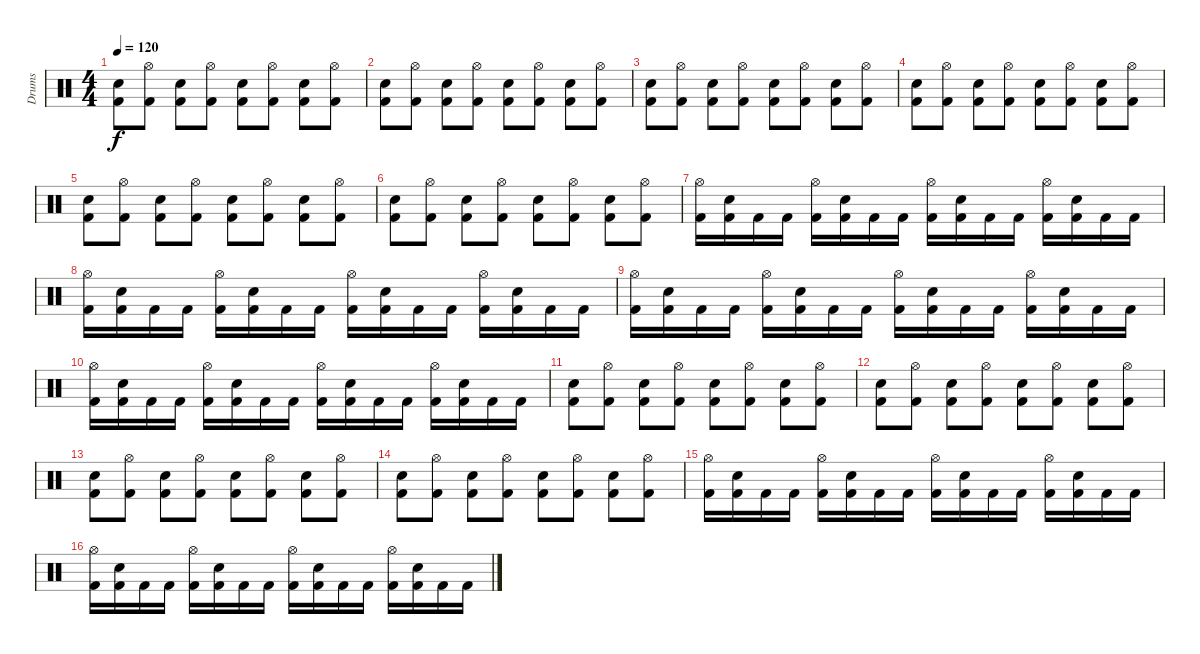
\track ("Drums" "Drums") {instrument percussion}
\staff {score}
\articulation defaults
\ts (4 4)
\tempo 120
\clef neutral
\ks c
("Snare (hit) 2" "Kick (hit) 2").8{dy f} ("Hi-Hat (open)" "Kick (hit) 2").8 ("Snare (hit) 2" "Kick (hit) 2").8 ("Hi-Hat (open)" "Kick (hit) 2").8 ("Snare (hit) 2" "Kick (hit) 2").8 ("Hi-Hat (open)" "Kick (hit) 2").8 ("Snare (hit) 2" "Kick (hit) 2").8 ("Hi-Hat (open)" "Kick (hit) 2").8 |
("Snare (hit) 2" "Kick (hit) 2").8 ("Hi-Hat (open)" "Kick (hit) 2").8 ("Snare (hit) 2" "Kick (hit) 2").8 ("Hi-Hat (open)" "Kick (hit) 2").8 ("Snare (hit) 2" "Kick (hit) 2").8 ("Hi-Hat (open)" "Kick (hit) 2").8 ("Snare (hit) 2" "Kick (hit) 2").8 ("Hi-Hat (open)" "Kick (hit) 2").8 |
("Snare (hit) 2" "Kick (hit) 2").8 ("Hi-Hat (open)" "Kick (hit) 2").8 ("Snare (hit) 2" "Kick (hit) 2").8 ("Hi-Hat (open)" "Kick (hit) 2").8 ("Snare (hit) 2" "Kick (hit) 2").8 ("Hi-Hat (open)" "Kick (hit) 2").8 ("Snare (hit) 2" "Kick (hit) 2").8 ("Hi-Hat (open)" "Kick (hit) 2").8 |
("Snare (hit) 2" "Kick (hit) 2").8 ("Hi-Hat (open)" "Kick (hit) 2").8 ("Snare (hit) 2" "Kick (hit) 2").8 ("Hi-Hat (open)" "Kick (hit) 2").8 ("Snare (hit) 2" "Kick (hit) 2").8 ("Hi-Hat (open)" "Kick (hit) 2").8 ("Snare (hit) 2" "Kick (hit) 2").8 ("Hi-Hat (open)" "Kick (hit) 2").8 |
("Snare (hit) 2" "Kick (hit) 2").8 ("Hi-Hat (open)" "Kick (hit) 2").8 ("Snare (hit) 2" "Kick (hit) 2").8 ("Hi-Hat (open)" "Kick (hit) 2").8 ("Snare (hit) 2" "Kick (hit) 2").8 ("Hi-Hat (open)" "Kick (hit) 2").8 ("Snare (hit) 2" "Kick (hit) 2").8 ("Hi-Hat (open)" "Kick (hit) 2").8 |
("Snare (hit) 2" "Kick (hit) 2").8 ("Hi-Hat (open)" "Kick (hit) 2").8 ("Snare (hit) 2" "Kick (hit) 2").8 ("Hi-Hat (open)" "Kick (hit) 2").8 ("Snare (hit) 2" "Kick (hit) 2").8 ("Hi-Hat (open)" "Kick (hit) 2").8 ("Snare (hit) 2" "Kick (hit) 2").8 ("Hi-Hat (open)" "Kick (hit) 2").8 |
("Hi-Hat (open)" "Kick (hit) 2").16 ("Snare (hit) 2" "Kick (hit) 2").16 "Kick (hit) 2".16 "Kick (hit) 2".16 ("Hi-Hat (open)" "Kick (hit) 2").16 ("Snare (hit) 2" "Kick (hit) 2").16 "Kick (hit) 2".16 "Kick (hit) 2".16 ("Hi-Hat (open)" "Kick (hit) 2").16 ("Snare (hit) 2" "Kick (hit) 2").16 "Kick (hit) 2".16 "Kick (hit) 2".16 ("Hi-Hat (open)" "Kick (hit) 2").16 ("Snare (hit) 2" "Kick (hit) 2").16 "Kick (hit) 2".16 "Kick (hit) 2".16 |
("Hi-Hat (open)" "Kick (hit) 2").16 ("Snare (hit) 2" "Kick (hit) 2").16 "Kick (hit) 2".16 "Kick (hit) 2".16 ("Hi-Hat (open)" "Kick (hit) 2").16 ("Snare (hit) 2" "Kick (hit) 2").16 "Kick (hit) 2".16 "Kick (hit) 2".16 ("Hi-Hat (open)" "Kick (hit) 2").16 ("Snare (hit) 2" "Kick (hit) 2").16 "Kick (hit) 2".16 "Kick (hit) 2".16 ("Hi-Hat (open)" "Kick (hit) 2").16 ("Snare (hit) 2" "Kick (hit) 2").16 "Kick (hit) 2".16 "Kick (hit) 2".16 |
("Hi-Hat (open)" "Kick (hit) 2").16 ("Snare (hit) 2" "Kick (hit) 2").16 "Kick (hit) 2".16 "Kick (hit) 2".16 ("Hi-Hat (open)" "Kick (hit) 2").16 ("Snare (hit) 2" "Kick (hit) 2").16 "Kick (hit) 2".16 "Kick (hit) 2".16 ("Hi-Hat (open)" "Kick (hit) 2").16 ("Snare (hit) 2" "Kick (hit) 2").16 "Kick (hit) 2".16 "Kick (hit) 2".16 ("Hi-Hat (open)" "Kick (hit) 2").16 ("Snare (hit) 2" "Kick (hit) 2").16 "Kick (hit) 2".16 "Kick (hit) 2".16 |
("Hi-Hat (open)" "Kick (hit) 2").16 ("Snare (hit) 2" "Kick (hit) 2").16 "Kick (hit) 2".16 "Kick (hit) 2".16 ("Hi-Hat (open)" "Kick (hit) 2").16 ("Snare (hit) 2" "Kick (hit) 2").16 "Kick (hit) 2".16 "Kick (hit) 2".16 ("Hi-Hat (open)" "Kick (hit) 2").16 ("Snare (hit) 2" "Kick (hit) 2").16 "Kick (hit) 2".16 "Kick (hit) 2".16 ("Hi-Hat (open)" "Kick (hit) 2").16 ("Snare (hit) 2" "Kick (hit) 2").16 "Kick (hit) 2".16 "Kick (hit) 2".16 |
("Snare (hit) 2" "Kick (hit) 2").8 ("Hi-Hat (open)" "Kick (hit) 2").8 ("Snare (hit) 2" "Kick (hit) 2").8 ("Hi-Hat (open)" "Kick (hit) 2").8 ("Snare (hit) 2" "Kick (hit) 2").8 ("Hi-Hat (open)" "Kick (hit) 2").8 ("Snare (hit) 2" "Kick (hit) 2").8 ("Hi-Hat (open)" "Kick (hit) 2").8 |
("Snare (hit) 2" "Kick (hit) 2").8 ("Hi-Hat (open)" "Kick (hit) 2").8 ("Snare (hit) 2" "Kick (hit) 2").8 ("Hi-Hat (open)" "Kick (hit) 2").8 ("Snare (hit) 2" "Kick (hit) 2").8 ("Hi-Hat (open)" "Kick (hit) 2").8 ("Snare (hit) 2" "Kick (hit) 2").8 ("Hi-Hat (open)" "Kick (hit) 2").8 |
("Snare (hit) 2" "Kick (hit) 2").8 ("Hi-Hat (open)" "Kick (hit) 2").8 ("Snare (hit) 2" "Kick (hit) 2").8 ("Hi-Hat (open)" "Kick (hit) 2").8 ("Snare (hit) 2" "Kick (hit) 2").8 ("Hi-Hat (open)" "Kick (hit) 2").8 ("Snare (hit) 2" "Kick (hit) 2").8 ("Hi-Hat (open)" "Kick (hit) 2").8 |
("Snare (hit) 2" "Kick (hit) 2").8 ("Hi-Hat (open)" "Kick (hit) 2").8 ("Snare (hit) 2" "Kick (hit) 2").8 ("Hi-Hat (open)" "Kick (hit) 2").8 ("Snare (hit) 2" "Kick (hit) 2").8 ("Hi-Hat (open)" "Kick (hit) 2").8 ("Snare (hit) 2" "Kick (hit) 2").8 ("Hi-Hat (open)" "Kick (hit) 2").8 |
("Hi-Hat (open)" "Kick (hit) 2").16 ("Snare (hit) 2" "Kick (hit) 2").16 "Kick (hit) 2".16 "Kick (hit) 2".16 ("Hi-Hat (open)" "Kick (hit) 2").16 ("Snare (hit) 2" "Kick (hit) 2").16 "Kick (hit) 2".16 "Kick (hit) 2".16 ("Hi-Hat (open)" "Kick (hit) 2").16 ("Snare (hit) 2" "Kick (hit) 2").16 "Kick (hit) 2".16 "Kick (hit) 2".16 ("Hi-Hat (open)" "Kick (hit) 2").16 ("Snare (hit) 2" "Kick (hit) 2").16 "Kick (hit) 2".16 "Kick (hit) 2".16 |
("Hi-Hat (open)" "Kick (hit) 2").16 ("Snare (hit) 2" "Kick (hit) 2").16 "Kick (hit) 2".16 "Kick (hit) 2".16 ("Hi-Hat (open)" "Kick (hit) 2").16 ("Snare (hit) 2" "Kick (hit) 2").16 "Kick (hit) 2".16 "Kick (hit) 2".16 ("Hi-Hat (open)" "Kick (hit) 2").16 ("Snare (hit) 2" "Kick (hit) 2").16 "Kick (hit) 2".16 "Kick (hit) 2".16 ("Hi-Hat (open)" "Kick (hit) 2").16 ("Snare (hit) 2" "Kick (hit) 2").16 "Kick (hit) 2".16 "Kick (hit) 2".16
